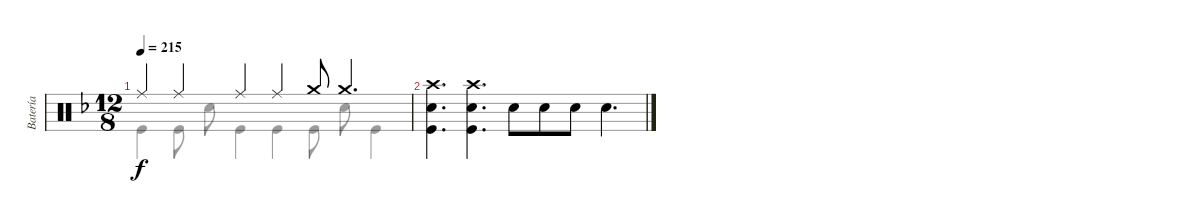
\track ("Batería" "Batería") {instrument percussion}
\staff {score}
\articulation defaults
\voice
\ts (12 8)
\tempo 215
\clef neutral
\ks dminor "Ride (middle)".4{dy f} "Ride (middle)".4 "Ride (middle)".4 "Ride (middle)".4 "Crash medium (hit)".8 "Crash medium (hit)".4{d}
|
("Crash high (hit)" "Snare (hit) 2" "Kick (hit)").4{d} ("Crash high (hit)" "Snare (hit) 2" "Kick (hit)").4{d} "Snare (hit) 2".8 "Snare (hit) 2".8 "Snare (hit) 2".8 "Snare (hit) 2".4{d}
\voice
\clef neutral
\ottava regular
\simile none
\ks dminor "Kick (hit)".4{dy f} "Kick (hit)".8 "Snare (hit) 2".8 "Kick (hit)".4 "Kick (hit)".4 "Kick (hit)".8 "Snare (hit) 2".8 "Kick (hit)".4
|
